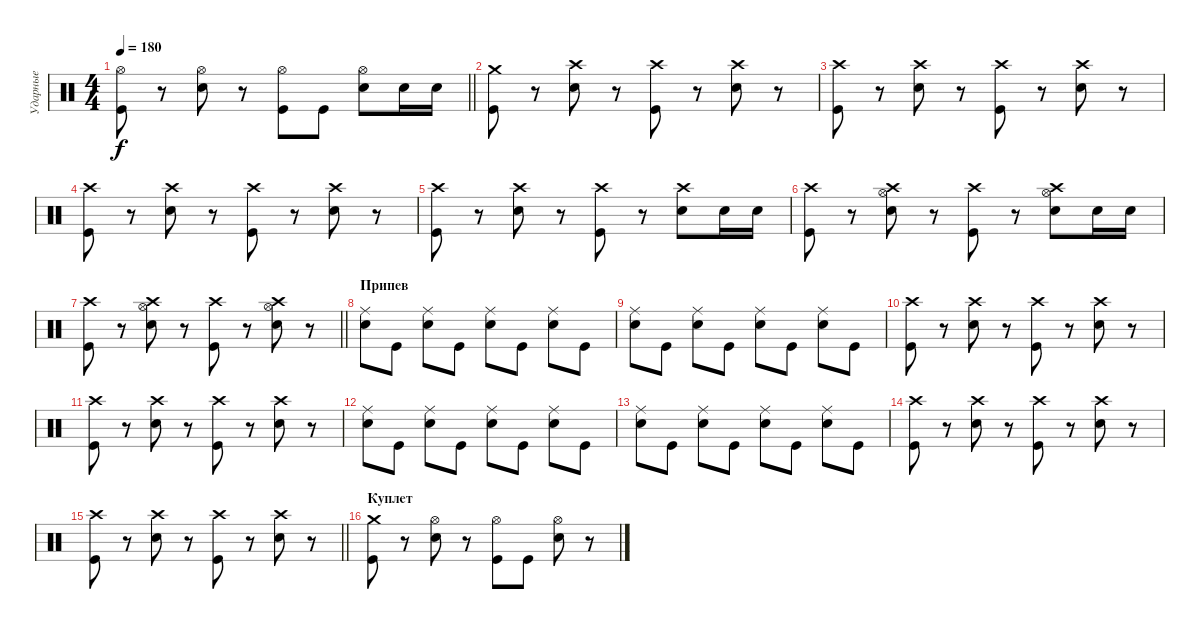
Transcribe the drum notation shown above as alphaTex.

\track ("Ударные" "Ударные") {instrument percussion}
\staff {score}
\articulation defaults
\ts (4 4)
\tempo 180
\clef neutral
\barLineRight lightlight
\ks c
("Hi-Hat (open)" "Kick (hit)").8{dy f} r.8 ("Hi-Hat (open)" "Electric Snare (hit)").8 r.8 ("Hi-Hat (open)" "Kick (hit)").8 "Kick (hit)".8 ("Hi-Hat (open)" "Electric Snare (hit)").8 "Electric Snare (hit)".16 "Electric Snare (hit)".16 |
\section ("" " ")
("Crash medium (hit)" "Kick (hit)").8 r.8 ("Crash high (hit)" "Electric Snare (hit)").8 r.8 ("Crash high (hit)" "Kick (hit)").8 r.8 ("Crash high (hit)" "Electric Snare (hit)").8 r.8 |
("Crash high (hit)" "Kick (hit)").8 r.8 ("Crash high (hit)" "Electric Snare (hit)").8 r.8 ("Crash high (hit)" "Kick (hit)").8 r.8 ("Crash high (hit)" "Electric Snare (hit)").8 r.8 |
("Crash high (hit)" "Kick (hit)").8 r.8 ("Crash high (hit)" "Electric Snare (hit)").8 r.8 ("Crash high (hit)" "Kick (hit)").8 r.8 ("Crash high (hit)" "Electric Snare (hit)").8 r.8 |
("Crash high (hit)" "Kick (hit)").8 r.8 ("Crash high (hit)" "Electric Snare (hit)").8 r.8 ("Crash high (hit)" "Kick (hit)").8 r.8 ("Crash high (hit)" "Electric Snare (hit)").8 "Electric Snare (hit)".16 "Electric Snare (hit)".16 |
("Crash high (hit)" "Kick (hit)").8 r.8 ("Crash high (hit)" "Hi-Hat (open)" "Electric Snare (hit)").8 r.8 ("Crash high (hit)" "Kick (hit)").8 r.8 ("Crash high (hit)" "Hi-Hat (open)" "Electric Snare (hit)").8 "Electric Snare (hit)".16 "Electric Snare (hit)".16 |
\barLineRight lightlight
("Crash high (hit)" "Kick (hit)").8 r.8 ("Crash high (hit)" "Hi-Hat (open)" "Electric Snare (hit)").8 r.8 ("Crash high (hit)" "Kick (hit)").8 r.8 ("Crash high (hit)" "Hi-Hat (open)" "Electric Snare (hit)").8 r.8 |
\section ("" "Припев")
("Ride (middle)" "Electric Snare (hit)").8 "Kick (hit)".8 ("Ride (middle)" "Electric Snare (hit)").8 "Kick (hit)".8 ("Ride (middle)" "Electric Snare (hit)").8 "Kick (hit)".8 ("Ride (middle)" "Electric Snare (hit)").8 "Kick (hit)".8 |
("Ride (middle)" "Electric Snare (hit)").8 "Kick (hit)".8 ("Ride (middle)" "Electric Snare (hit)").8 "Kick (hit)".8 ("Ride (middle)" "Electric Snare (hit)").8 "Kick (hit)".8 ("Ride (middle)" "Electric Snare (hit)").8 "Kick (hit)".8 |
("Crash high (hit)" "Kick (hit)").8 r.8 ("Crash high (hit)" "Electric Snare (hit)").8 r.8 ("Crash high (hit)" "Kick (hit)").8 r.8 ("Crash high (hit)" "Electric Snare (hit)").8 r.8 |
("Crash high (hit)" "Kick (hit)").8 r.8 ("Crash high (hit)" "Electric Snare (hit)").8 r.8 ("Crash high (hit)" "Kick (hit)").8 r.8 ("Crash high (hit)" "Electric Snare (hit)").8 r.8 |
("Ride (middle)" "Electric Snare (hit)").8 "Kick (hit)".8 ("Ride (middle)" "Electric Snare (hit)").8 "Kick (hit)".8 ("Ride (middle)" "Electric Snare (hit)").8 "Kick (hit)".8 ("Ride (middle)" "Electric Snare (hit)").8 "Kick (hit)".8 |
("Ride (middle)" "Electric Snare (hit)").8 "Kick (hit)".8 ("Ride (middle)" "Electric Snare (hit)").8 "Kick (hit)".8 ("Ride (middle)" "Electric Snare (hit)").8 "Kick (hit)".8 ("Ride (middle)" "Electric Snare (hit)").8 "Kick (hit)".8 |
("Crash high (hit)" "Kick (hit)").8 r.8 ("Crash high (hit)" "Electric Snare (hit)").8 r.8 ("Crash high (hit)" "Kick (hit)").8 r.8 ("Crash high (hit)" "Electric Snare (hit)").8 r.8 |
\barLineRight lightlight
("Crash high (hit)" "Kick (hit)").8 r.8 ("Crash high (hit)" "Electric Snare (hit)").8 r.8 ("Crash high (hit)" "Kick (hit)").8 r.8 ("Crash high (hit)" "Electric Snare (hit)").8 r.8 |
\section ("" "Куплет")
("Crash medium (hit)" "Kick (hit)").8 r.8 ("Hi-Hat (open)" "Electric Snare (hit)").8 r.8 ("Hi-Hat (open)" "Kick (hit)").8 "Kick (hit)".8 ("Hi-Hat (open)" "Electric Snare (hit)").8 r.8
